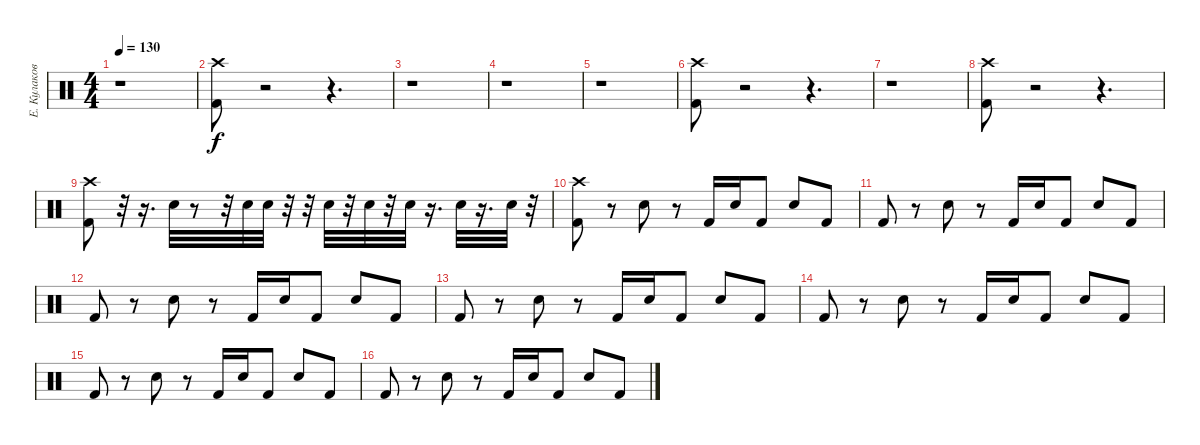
\track ("Е. Кулаков" "Е. Кулаков") {instrument percussion}
\staff {score}
\articulation defaults
\ts (4 4)
\tempo 130
\clef neutral
\ks c
r.1{dy f} |
("Crash high (hit)" "Kick (hit) 2").8 r.2 r.4{d} |
r.1 |
r.1 |
r.1 |
("Crash high (hit)" "Kick (hit) 2").8 r.2 r.4{d} |
r.1 |
("Crash high (hit)" "Kick (hit) 2").8 r.2 r.4{d} |
("Kick (hit) 2" "Crash high (hit)").8 r.32 r.16{d} "Electric Snare (hit)".32 r.8 r.32 "Electric Snare (hit)".32 "Electric Snare (hit)".32 r.32 r.32 "Electric Snare (hit)".32 r.32 "Electric Snare (hit)".32 r.32 "Electric Snare (hit)".32 r.16{d} "Electric Snare (hit)".32 r.16{d} "Electric Snare (hit)".32 r.32 |
("Crash high (hit)" "Kick (hit) 2").8 r.8 "Electric Snare (hit)".8 r.8 "Kick (hit) 2".16 "Electric Snare (hit)".16 "Kick (hit) 2".8 "Electric Snare (hit)".8 "Kick (hit) 2".8 |
"Kick (hit) 2".8 r.8 "Electric Snare (hit)".8 r.8 "Kick (hit) 2".16 "Electric Snare (hit)".16 "Kick (hit) 2".8 "Electric Snare (hit)".8 "Kick (hit) 2".8 |
"Kick (hit) 2".8 r.8 "Electric Snare (hit)".8 r.8 "Kick (hit) 2".16 "Electric Snare (hit)".16 "Kick (hit) 2".8 "Electric Snare (hit)".8 "Kick (hit) 2".8 |
"Kick (hit) 2".8 r.8 "Electric Snare (hit)".8 r.8 "Kick (hit) 2".16 "Electric Snare (hit)".16 "Kick (hit) 2".8 "Electric Snare (hit)".8 "Kick (hit) 2".8 |
"Kick (hit) 2".8 r.8 "Electric Snare (hit)".8 r.8 "Kick (hit) 2".16 "Electric Snare (hit)".16 "Kick (hit) 2".8 "Electric Snare (hit)".8 "Kick (hit) 2".8 |
"Kick (hit) 2".8 r.8 "Electric Snare (hit)".8 r.8 "Kick (hit) 2".16 "Electric Snare (hit)".16 "Kick (hit) 2".8 "Electric Snare (hit)".8 "Kick (hit) 2".8 |
"Kick (hit) 2".8 r.8 "Electric Snare (hit)".8 r.8 "Kick (hit) 2".16 "Electric Snare (hit)".16 "Kick (hit) 2".8 "Electric Snare (hit)".8 "Kick (hit) 2".8
